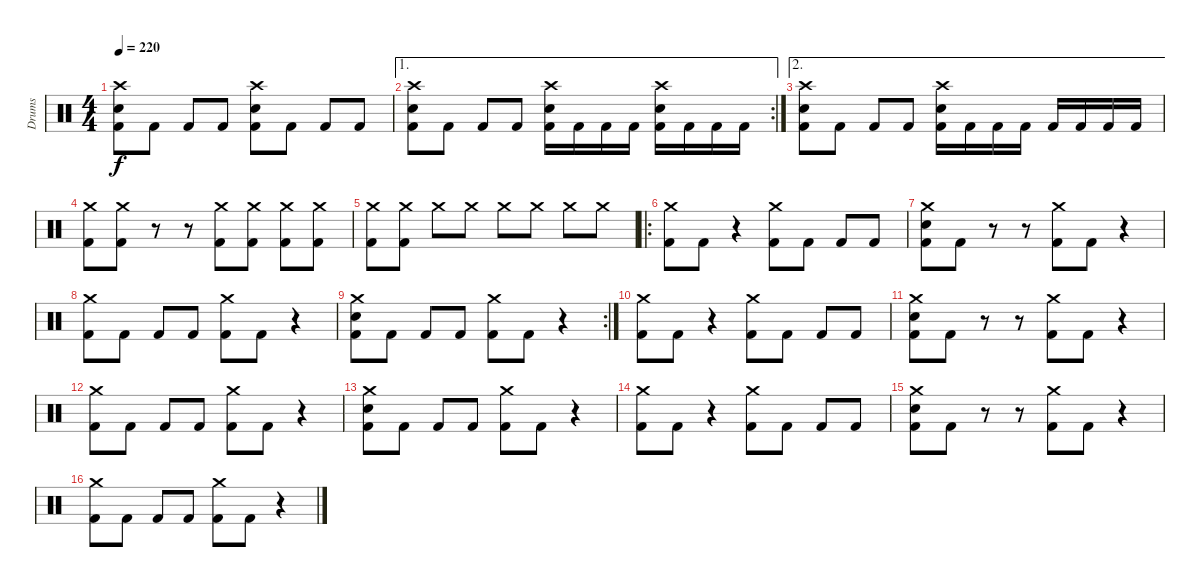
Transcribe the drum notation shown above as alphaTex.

\track ("Drums" "Drums") {instrument percussion}
\staff {score}
\articulation defaults
\ts (4 4)
\tempo 220
\clef neutral
\ks c
("Crash high (hit)" "Electric Snare (hit)" "Kick (hit) 2").8{dy f} "Kick (hit) 2".8 "Kick (hit) 2".8 "Kick (hit) 2".8 ("Crash high (hit)" "Electric Snare (hit)" "Kick (hit) 2").8 "Kick (hit) 2".8 "Kick (hit) 2".8 "Kick (hit) 2".8 |
\ae 1
\rc 2
("Crash high (hit)" "Electric Snare (hit)" "Kick (hit) 2").8 "Kick (hit) 2".8 "Kick (hit) 2".8 "Kick (hit) 2".8 ("Crash high (hit)" "Electric Snare (hit)" "Kick (hit) 2").16 "Kick (hit) 2".16 "Kick (hit) 2".16 "Kick (hit) 2".16 ("Crash high (hit)" "Electric Snare (hit)" "Kick (hit) 2").16 "Kick (hit) 2".16 "Kick (hit) 2".16 "Kick (hit) 2".16 |
\ae 2
("Crash high (hit)" "Electric Snare (hit)" "Kick (hit) 2").8 "Kick (hit) 2".8 "Kick (hit) 2".8 "Kick (hit) 2".8 ("Crash high (hit)" "Electric Snare (hit)" "Kick (hit) 2").16 "Kick (hit) 2".16 "Kick (hit) 2".16 "Kick (hit) 2".16 "Kick (hit) 2".16 "Kick (hit) 2".16 "Kick (hit) 2".16 "Kick (hit) 2".16 |
("Crash medium (hit)" "Kick (hit) 2").8 ("Crash medium (hit)" "Kick (hit) 2").8 r.8 r.8 ("Crash medium (hit)" "Kick (hit) 2").8 ("Crash medium (hit)" "Kick (hit) 2").8 ("Crash medium (hit)" "Kick (hit) 2").8 ("Crash medium (hit)" "Kick (hit) 2").8 |
("Crash medium (hit)" "Kick (hit) 2").8 ("Crash medium (hit)" "Kick (hit) 2").8 "Crash medium (hit)".8{volume 7} "Crash medium (hit)".8{volume 16} "Crash medium (hit)".8 "Crash medium (hit)".8 "Crash medium (hit)".8 "Crash medium (hit)".8 |
\ro
("Crash medium (hit)" "Kick (hit) 2").8 "Kick (hit) 2".8 r.4 ("Crash medium (hit)" "Kick (hit) 2").8 "Kick (hit) 2".8 "Kick (hit) 2".8 "Kick (hit) 2".8 |
("Crash medium (hit)" "Electric Snare (hit)" "Kick (hit) 2").8 "Kick (hit) 2".8 r.8 r.8 ("Crash medium (hit)" "Kick (hit) 2").8 "Kick (hit) 2".8 r.4 |
("Crash medium (hit)" "Kick (hit) 2").8 "Kick (hit) 2".8 "Kick (hit) 2".8 "Kick (hit) 2".8 ("Crash medium (hit)" "Kick (hit) 2").8 "Kick (hit) 2".8 r.4 |
\rc 2
("Crash medium (hit)" "Electric Snare (hit)" "Kick (hit) 2").8 "Kick (hit) 2".8 "Kick (hit) 2".8 "Kick (hit) 2".8 ("Crash medium (hit)" "Kick (hit) 2").8 "Kick (hit) 2".8 r.4 |
("Crash medium (hit)" "Kick (hit) 2").8 "Kick (hit) 2".8 r.4 ("Crash medium (hit)" "Kick (hit) 2").8 "Kick (hit) 2".8 "Kick (hit) 2".8 "Kick (hit) 2".8 |
("Crash medium (hit)" "Electric Snare (hit)" "Kick (hit) 2").8 "Kick (hit) 2".8 r.8 r.8 ("Crash medium (hit)" "Kick (hit) 2").8 "Kick (hit) 2".8 r.4 |
("Crash medium (hit)" "Kick (hit) 2").8 "Kick (hit) 2".8 "Kick (hit) 2".8 "Kick (hit) 2".8 ("Crash medium (hit)" "Kick (hit) 2").8 "Kick (hit) 2".8 r.4 |
("Crash medium (hit)" "Electric Snare (hit)" "Kick (hit) 2").8 "Kick (hit) 2".8 "Kick (hit) 2".8 "Kick (hit) 2".8 ("Crash medium (hit)" "Kick (hit) 2").8 "Kick (hit) 2".8 r.4 |
("Crash medium (hit)" "Kick (hit) 2").8 "Kick (hit) 2".8 r.4 ("Crash medium (hit)" "Kick (hit) 2").8 "Kick (hit) 2".8 "Kick (hit) 2".8 "Kick (hit) 2".8 |
("Crash medium (hit)" "Electric Snare (hit)" "Kick (hit) 2").8 "Kick (hit) 2".8 r.8 r.8 ("Crash medium (hit)" "Kick (hit) 2").8 "Kick (hit) 2".8 r.4 |
("Crash medium (hit)" "Kick (hit) 2").8 "Kick (hit) 2".8 "Kick (hit) 2".8 "Kick (hit) 2".8 ("Crash medium (hit)" "Kick (hit) 2").8 "Kick (hit) 2".8 r.4
